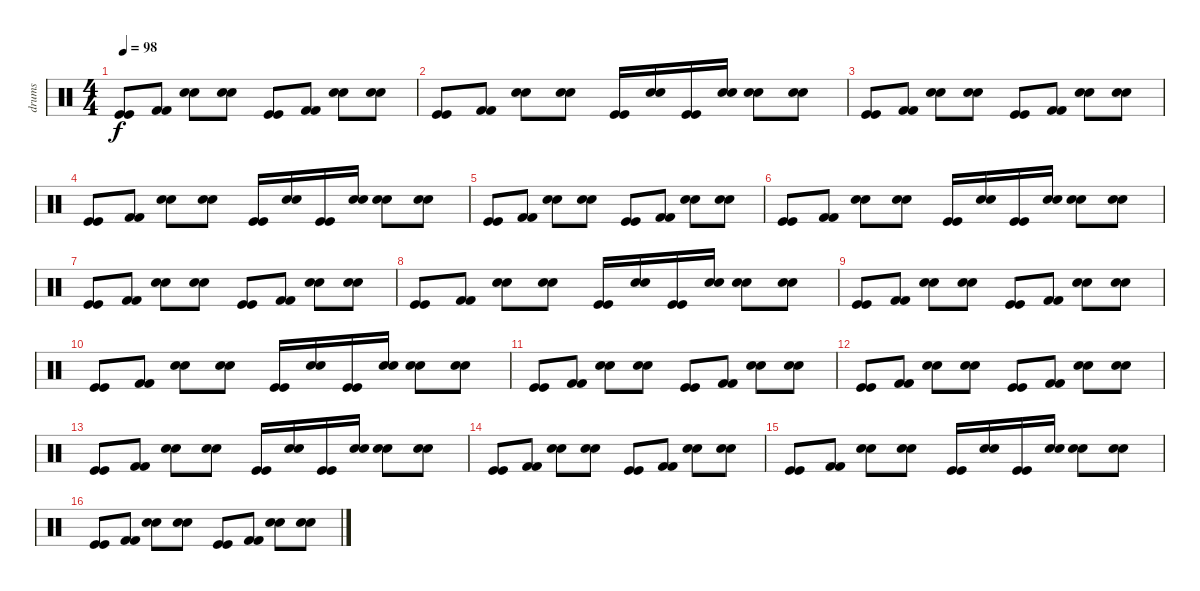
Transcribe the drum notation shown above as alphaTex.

\track ("drums" "drums") {instrument percussion}
\staff {score}
\articulation defaults
\ts (4 4)
\tempo 98
\clef neutral
\ks c
("Kick (hit)" "Kick (hit)").8{dy f} ("Kick (hit) 2" "Kick (hit) 2").8 ("Snare (hit) 2" "Snare (hit) 2").8 ("Snare (hit) 2" "Snare (hit) 2").8 ("Kick (hit)" "Kick (hit)").8 ("Kick (hit) 2" "Kick (hit) 2").8 ("Snare (hit) 2" "Snare (hit) 2").8 ("Snare (hit) 2" "Snare (hit) 2").8 |
("Kick (hit)" "Kick (hit)").8 ("Kick (hit) 2" "Kick (hit) 2").8 ("Snare (hit) 2" "Snare (hit) 2").8 ("Snare (hit) 2" "Snare (hit) 2").8 ("Kick (hit)" "Kick (hit)").16 ("Electric Snare (hit)" "Electric Snare (hit)").16 ("Kick (hit)" "Kick (hit)").16 ("Electric Snare (hit)" "Electric Snare (hit)").16 ("Snare (hit) 2" "Snare (hit) 2").8 ("Snare (hit) 2" "Snare (hit) 2").8 |
("Kick (hit)" "Kick (hit)").8 ("Kick (hit) 2" "Kick (hit) 2").8 ("Snare (hit) 2" "Snare (hit) 2").8 ("Snare (hit) 2" "Snare (hit) 2").8 ("Kick (hit)" "Kick (hit)").8 ("Kick (hit) 2" "Kick (hit) 2").8 ("Snare (hit) 2" "Snare (hit) 2").8 ("Snare (hit) 2" "Snare (hit) 2").8 |
("Kick (hit)" "Kick (hit)").8 ("Kick (hit) 2" "Kick (hit) 2").8 ("Snare (hit) 2" "Snare (hit) 2").8 ("Snare (hit) 2" "Snare (hit) 2").8 ("Kick (hit)" "Kick (hit)").16 ("Electric Snare (hit)" "Electric Snare (hit)").16 ("Kick (hit)" "Kick (hit)").16 ("Electric Snare (hit)" "Electric Snare (hit)").16 ("Snare (hit) 2" "Snare (hit) 2").8 ("Snare (hit) 2" "Snare (hit) 2").8 |
("Kick (hit)" "Kick (hit)").8 ("Kick (hit) 2" "Kick (hit) 2").8 ("Snare (hit) 2" "Snare (hit) 2").8 ("Snare (hit) 2" "Snare (hit) 2").8 ("Kick (hit)" "Kick (hit)").8 ("Kick (hit) 2" "Kick (hit) 2").8 ("Snare (hit) 2" "Snare (hit) 2").8 ("Snare (hit) 2" "Snare (hit) 2").8 |
("Kick (hit)" "Kick (hit)").8 ("Kick (hit) 2" "Kick (hit) 2").8 ("Snare (hit) 2" "Snare (hit) 2").8 ("Snare (hit) 2" "Snare (hit) 2").8 ("Kick (hit)" "Kick (hit)").16 ("Electric Snare (hit)" "Electric Snare (hit)").16 ("Kick (hit)" "Kick (hit)").16 ("Electric Snare (hit)" "Electric Snare (hit)").16 ("Snare (hit) 2" "Snare (hit) 2").8 ("Snare (hit) 2" "Snare (hit) 2").8 |
("Kick (hit)" "Kick (hit)").8 ("Kick (hit) 2" "Kick (hit) 2").8 ("Snare (hit) 2" "Snare (hit) 2").8 ("Snare (hit) 2" "Snare (hit) 2").8 ("Kick (hit)" "Kick (hit)").8 ("Kick (hit) 2" "Kick (hit) 2").8 ("Snare (hit) 2" "Snare (hit) 2").8 ("Snare (hit) 2" "Snare (hit) 2").8 |
("Kick (hit)" "Kick (hit)").8 ("Kick (hit) 2" "Kick (hit) 2").8 ("Snare (hit) 2" "Snare (hit) 2").8 ("Snare (hit) 2" "Snare (hit) 2").8 ("Kick (hit)" "Kick (hit)").16 ("Electric Snare (hit)" "Electric Snare (hit)").16 ("Kick (hit)" "Kick (hit)").16 ("Electric Snare (hit)" "Electric Snare (hit)").16 ("Snare (hit) 2" "Snare (hit) 2").8 ("Snare (hit) 2" "Snare (hit) 2").8 |
("Kick (hit)" "Kick (hit)").8 ("Kick (hit) 2" "Kick (hit) 2").8 ("Snare (hit) 2" "Snare (hit) 2").8 ("Snare (hit) 2" "Snare (hit) 2").8 ("Kick (hit)" "Kick (hit)").8 ("Kick (hit) 2" "Kick (hit) 2").8 ("Snare (hit) 2" "Snare (hit) 2").8 ("Snare (hit) 2" "Snare (hit) 2").8 |
("Kick (hit)" "Kick (hit)").8 ("Kick (hit) 2" "Kick (hit) 2").8 ("Snare (hit) 2" "Snare (hit) 2").8 ("Snare (hit) 2" "Snare (hit) 2").8 ("Kick (hit)" "Kick (hit)").16 ("Electric Snare (hit)" "Electric Snare (hit)").16 ("Kick (hit)" "Kick (hit)").16 ("Electric Snare (hit)" "Electric Snare (hit)").16 ("Snare (hit) 2" "Snare (hit) 2").8 ("Snare (hit) 2" "Snare (hit) 2").8 |
("Kick (hit)" "Kick (hit)").8 ("Kick (hit) 2" "Kick (hit) 2").8 ("Snare (hit) 2" "Snare (hit) 2").8 ("Snare (hit) 2" "Snare (hit) 2").8 ("Kick (hit)" "Kick (hit)").8 ("Kick (hit) 2" "Kick (hit) 2").8 ("Snare (hit) 2" "Snare (hit) 2").8 ("Snare (hit) 2" "Snare (hit) 2").8 |
("Kick (hit)" "Kick (hit)").8 ("Kick (hit) 2" "Kick (hit) 2").8 ("Snare (hit) 2" "Snare (hit) 2").8 ("Snare (hit) 2" "Snare (hit) 2").8 ("Kick (hit)" "Kick (hit)").8 ("Kick (hit) 2" "Kick (hit) 2").8 ("Snare (hit) 2" "Snare (hit) 2").8 ("Snare (hit) 2" "Snare (hit) 2").8 |
("Kick (hit)" "Kick (hit)").8 ("Kick (hit) 2" "Kick (hit) 2").8 ("Snare (hit) 2" "Snare (hit) 2").8 ("Snare (hit) 2" "Snare (hit) 2").8 ("Kick (hit)" "Kick (hit)").16 ("Electric Snare (hit)" "Electric Snare (hit)").16 ("Kick (hit)" "Kick (hit)").16 ("Electric Snare (hit)" "Electric Snare (hit)").16 ("Snare (hit) 2" "Snare (hit) 2").8 ("Snare (hit) 2" "Snare (hit) 2").8 |
("Kick (hit)" "Kick (hit)").8 ("Kick (hit) 2" "Kick (hit) 2").8 ("Snare (hit) 2" "Snare (hit) 2").8 ("Snare (hit) 2" "Snare (hit) 2").8 ("Kick (hit)" "Kick (hit)").8 ("Kick (hit) 2" "Kick (hit) 2").8 ("Snare (hit) 2" "Snare (hit) 2").8 ("Snare (hit) 2" "Snare (hit) 2").8 |
("Kick (hit)" "Kick (hit)").8 ("Kick (hit) 2" "Kick (hit) 2").8 ("Snare (hit) 2" "Snare (hit) 2").8 ("Snare (hit) 2" "Snare (hit) 2").8 ("Kick (hit)" "Kick (hit)").16 ("Electric Snare (hit)" "Electric Snare (hit)").16 ("Kick (hit)" "Kick (hit)").16 ("Electric Snare (hit)" "Electric Snare (hit)").16 ("Snare (hit) 2" "Snare (hit) 2").8 ("Snare (hit) 2" "Snare (hit) 2").8 |
("Kick (hit)" "Kick (hit)").8 ("Kick (hit) 2" "Kick (hit) 2").8 ("Snare (hit) 2" "Snare (hit) 2").8 ("Snare (hit) 2" "Snare (hit) 2").8 ("Kick (hit)" "Kick (hit)").8 ("Kick (hit) 2" "Kick (hit) 2").8 ("Snare (hit) 2" "Snare (hit) 2").8 ("Snare (hit) 2" "Snare (hit) 2").8
